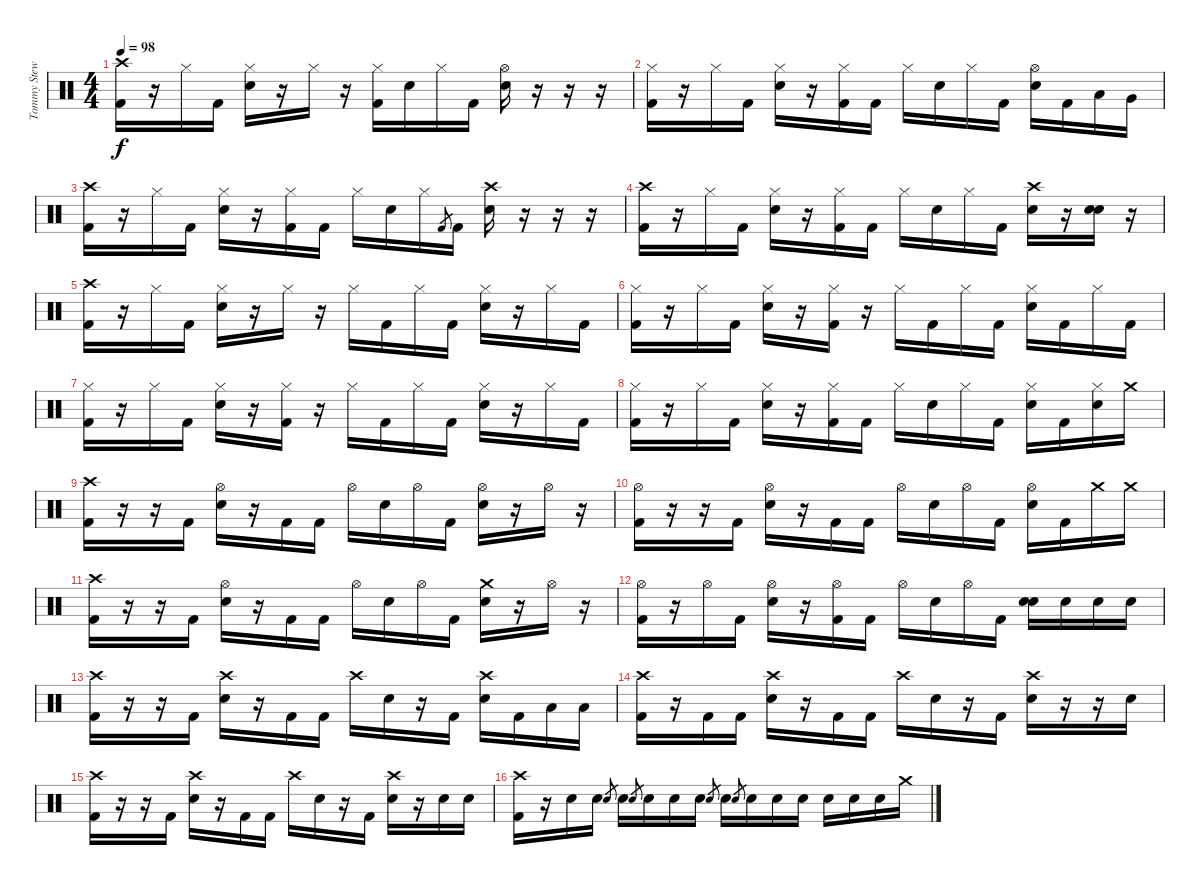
\track ("Tommy Stewart - Drums" "Tommy Stew") {instrument percussion}
\staff {score}
\articulation defaults
\ts (4 4)
\tempo 98
\clef neutral
\ks c
("Crash high (hit)" "Kick (hit) 2").16{dy f} r.16 "Hi-Hat (closed)".16 "Kick (hit) 2".16 ("Hi-Hat (closed)" "Snare (hit) 2").16 r.16 "Hi-Hat (closed)".16 r.16 ("Hi-Hat (closed)" "Kick (hit) 2").16 "Snare (hit) 2".16 "Hi-Hat (closed)".16 "Kick (hit) 2".16 ("Hi-Hat (open)" "Snare (hit) 2").16 r.16 r.16 r.16 |
("Hi-Hat (closed)" "Kick (hit) 2").16 r.16 "Hi-Hat (closed)".16 "Kick (hit) 2".16 ("Hi-Hat (closed)" "Snare (hit) 2").16 r.16 ("Hi-Hat (closed)" "Kick (hit) 2").16 "Kick (hit) 2".16 "Hi-Hat (closed)".16 "Snare (hit) 2".16 "Hi-Hat (closed)".16 "Kick (hit) 2".16 ("Hi-Hat (open)" "Snare (hit) 2").16 "Kick (hit) 2".16 "Low Tom (hit)".16 "Very Low Tom (hit)".16 |
("Crash high (hit)" "Kick (hit) 2").16 r.16 "Hi-Hat (closed)".16 "Kick (hit) 2".16 ("Hi-Hat (closed)" "Snare (hit) 2").16 r.16 ("Hi-Hat (closed)" "Kick (hit) 2").16 "Kick (hit) 2".16 "Hi-Hat (closed)".16 "Snare (hit) 2".16 "Hi-Hat (closed)".16 "Kick (hit) 2".8{gr} "Kick (hit) 2".16 ("Crash high (hit)" "Snare (hit) 2").16 r.16 r.16 r.16 |
("Crash high (hit)" "Kick (hit) 2").16 r.16 "Hi-Hat (closed)".16 "Kick (hit) 2".16 ("Hi-Hat (closed)" "Snare (hit) 2").16 r.16 ("Hi-Hat (closed)" "Kick (hit) 2").16 "Kick (hit) 2".16 "Hi-Hat (closed)".16 "Snare (hit) 2".16 "Hi-Hat (closed)".16 "Kick (hit) 2".16 ("Crash high (hit)" "Snare (hit) 2").16 r.16 ("Snare (hit) 2" "Snare (hit) 2").16 r.16 |
("Crash high (hit)" "Kick (hit) 2").16 r.16 "Hi-Hat (closed)".16 "Kick (hit) 2".16 ("Hi-Hat (closed)" "Snare (hit) 2").16 r.16 "Hi-Hat (closed)".16 r.16 "Hi-Hat (closed)".16 "Kick (hit) 2".16 "Hi-Hat (closed)".16 "Kick (hit) 2".16 ("Hi-Hat (closed)" "Snare (hit) 2").16 r.16 "Hi-Hat (closed)".16 "Kick (hit) 2".16 |
("Hi-Hat (closed)" "Kick (hit) 2").16 r.16 "Hi-Hat (closed)".16 "Kick (hit) 2".16 ("Hi-Hat (closed)" "Snare (hit) 2").16 r.16 ("Hi-Hat (closed)" "Kick (hit) 2").16 r.16 "Hi-Hat (closed)".16 "Kick (hit) 2".16 "Hi-Hat (closed)".16 "Kick (hit) 2".16 ("Hi-Hat (closed)" "Snare (hit) 2").16 "Kick (hit) 2".16 "Hi-Hat (closed)".16 "Kick (hit) 2".16 |
("Hi-Hat (closed)" "Kick (hit) 2").16 r.16 "Hi-Hat (closed)".16 "Kick (hit) 2".16 ("Hi-Hat (closed)" "Snare (hit) 2").16 r.16 ("Hi-Hat (closed)" "Kick (hit) 2").16 r.16 "Hi-Hat (closed)".16 "Kick (hit) 2".16 "Hi-Hat (closed)".16 "Kick (hit) 2".16 ("Hi-Hat (closed)" "Snare (hit) 2").16 r.16 "Hi-Hat (closed)".16 "Kick (hit) 2".16 |
("Hi-Hat (closed)" "Kick (hit) 2").16 r.16 "Hi-Hat (closed)".16 "Kick (hit) 2".16 ("Hi-Hat (closed)" "Snare (hit) 2").16 r.16 ("Hi-Hat (closed)" "Kick (hit) 2").16 "Kick (hit) 2".16 "Hi-Hat (closed)".16 "Snare (hit) 2".16 "Hi-Hat (closed)".16 "Kick (hit) 2".16 ("Hi-Hat (closed)" "Snare (hit) 2").16 "Kick (hit) 2".16 ("Hi-Hat (closed)" "Snare (hit) 2").16 "Crash medium (hit)".16 |
("Crash high (hit)" "Kick (hit) 2").16 r.16 r.16 "Kick (hit) 2".16 ("Hi-Hat (open)" "Snare (hit) 2").16 r.16 "Kick (hit) 2".16 "Kick (hit) 2".16 "Hi-Hat (open)".16 "Snare (hit) 2".16 "Hi-Hat (open)".16 "Kick (hit) 2".16 ("Hi-Hat (open)" "Snare (hit) 2").16 r.16 "Hi-Hat (open)".16 r.16 |
("Hi-Hat (open)" "Kick (hit) 2").16 r.16 r.16 "Kick (hit) 2".16 ("Hi-Hat (open)" "Snare (hit) 2").16 r.16 "Kick (hit) 2".16 "Kick (hit) 2".16 "Hi-Hat (open)".16 "Snare (hit) 2".16 "Hi-Hat (open)".16 "Kick (hit) 2".16 ("Hi-Hat (open)" "Snare (hit) 2").16 "Kick (hit) 2".16 "Crash medium (hit)".16 "Crash medium (hit)".16 |
("Crash high (hit)" "Kick (hit) 2").16 r.16 r.16 "Kick (hit) 2".16 ("Hi-Hat (open)" "Snare (hit) 2").16 r.16 "Kick (hit) 2".16 "Kick (hit) 2".16 "Hi-Hat (open)".16 "Snare (hit) 2".16 "Hi-Hat (open)".16 "Kick (hit) 2".16 ("Crash medium (hit)" "Snare (hit) 2").16 r.16 "Hi-Hat (open)".16 r.16 |
("Hi-Hat (open)" "Kick (hit) 2").16 r.16 "Hi-Hat (open)".16 "Kick (hit) 2".16 ("Hi-Hat (open)" "Snare (hit) 2").16 r.16 ("Hi-Hat (open)" "Kick (hit) 2").16 "Kick (hit) 2".16 "Hi-Hat (open)".16 "Snare (hit) 2".16 "Hi-Hat (open)".16 "Kick (hit) 2".16 ("Snare (hit) 2" "Snare (hit) 2").16 "Snare (hit) 2".16 "Snare (hit) 2".16 "Snare (hit) 2".16 |
("Crash high (hit)" "Kick (hit) 2").16 r.16 r.16 "Kick (hit) 2".16 ("Crash high (hit)" "Snare (hit) 2").16 r.16 "Kick (hit) 2".16 "Kick (hit) 2".16 "Crash high (hit)".16 "Snare (hit) 2".16 r.16 "Kick (hit) 2".16 ("Crash high (hit)" "Snare (hit) 2").16 "Kick (hit) 2".16 "Low Tom (hit)".16 "Low Tom (hit)".16 |
("Crash high (hit)" "Kick (hit) 2").16 r.16 "Kick (hit) 2".16 "Kick (hit) 2".16 ("Crash high (hit)" "Snare (hit) 2").16 r.16 "Kick (hit) 2".16 "Kick (hit) 2".16 "Crash high (hit)".16 "Snare (hit) 2".16 r.16 "Kick (hit) 2".16 ("Crash high (hit)" "Snare (hit) 2").16 r.16 r.16 "Snare (hit) 2".16 |
("Crash high (hit)" "Kick (hit) 2").16 r.16 r.16 "Kick (hit) 2".16 ("Crash high (hit)" "Snare (hit) 2").16 r.16 "Kick (hit) 2".16 "Kick (hit) 2".16 "Crash high (hit)".16 "Snare (hit) 2".16 r.16 "Kick (hit) 2".16 ("Crash high (hit)" "Snare (hit) 2").16 r.16 "Snare (hit) 2".16 "Snare (hit) 2".16 |
("Crash high (hit)" "Kick (hit) 2").16 r.16 "Snare (hit) 2".16 "Snare (hit) 2".16 "Snare (hit) 2".8{gr} "Snare (hit) 2".16 "Snare (hit) 2".8{gr} "Snare (hit) 2".16 "Snare (hit) 2".16 "Snare (hit) 2".16 "Snare (hit) 2".8{gr} "Snare (hit) 2".16 "Snare (hit) 2".8{gr} "Snare (hit) 2".16 "Snare (hit) 2".16 "Snare (hit) 2".16 "Snare (hit) 2".16 "Snare (hit) 2".16 "Snare (hit) 2".16 "Crash medium (hit)".16
